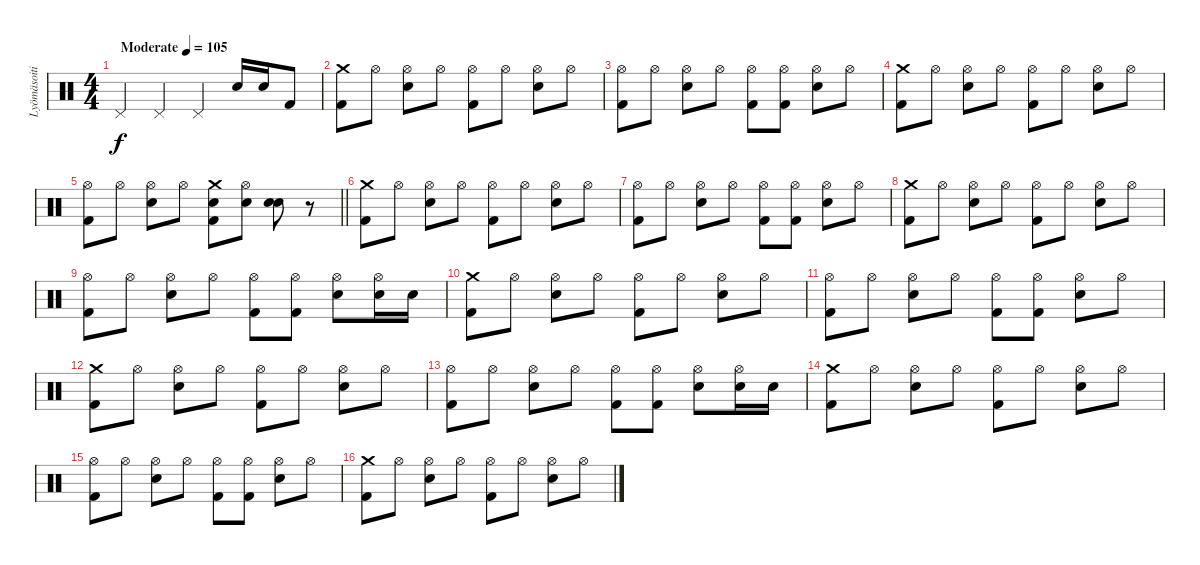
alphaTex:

\track ("Lyömäsoitin" "Lyömäsoiti") {instrument percussion}
\staff {score}
\articulation defaults
\ts (4 4)
\tempo (105 "Moderate")
\clef neutral
\ks c "Pedal Hi-Hat (hit)".4{dy f} "Pedal Hi-Hat (hit)".4 "Pedal Hi-Hat (hit)".4 "Snare (hit) 2".16 "Snare (hit) 2".16 "Kick (hit) 2".8
|
("Crash medium (hit)" "Kick (hit) 2").8 "Hi-Hat (open)".8 ("Hi-Hat (open)" "Snare (hit) 2").8 "Hi-Hat (open)".8 ("Hi-Hat (open)" "Kick (hit) 2").8 "Hi-Hat (open)".8 ("Hi-Hat (open)" "Snare (hit) 2").8 "Hi-Hat (open)".8 |
("Hi-Hat (open)" "Kick (hit) 2").8 "Hi-Hat (open)".8 ("Hi-Hat (open)" "Snare (hit) 2").8 "Hi-Hat (open)".8 ("Hi-Hat (open)" "Kick (hit) 2").8 ("Hi-Hat (open)" "Kick (hit) 2").8 ("Hi-Hat (open)" "Snare (hit) 2").8 "Hi-Hat (open)".8 |
("Crash medium (hit)" "Kick (hit) 2").8 "Hi-Hat (open)".8 ("Hi-Hat (open)" "Snare (hit) 2").8 "Hi-Hat (open)".8 ("Hi-Hat (open)" "Kick (hit) 2").8 "Hi-Hat (open)".8 ("Hi-Hat (open)" "Snare (hit) 2").8 "Hi-Hat (open)".8 |
\barLineRight lightlight
("Hi-Hat (open)" "Kick (hit) 2").8 "Hi-Hat (open)".8 ("Hi-Hat (open)" "Snare (hit) 2").8 "Hi-Hat (open)".8 ("Crash medium (hit)" "Snare (hit) 2" "Kick (hit) 2").8 ("Hi-Hat (open)" "Snare (hit) 2").8 ("Snare (hit) 2" "Snare (hit) 2").8 r.8 |
("Crash medium (hit)" "Kick (hit) 2").8 "Hi-Hat (open)".8 ("Hi-Hat (open)" "Snare (hit) 2").8 "Hi-Hat (open)".8 ("Hi-Hat (open)" "Kick (hit) 2").8 "Hi-Hat (open)".8 ("Hi-Hat (open)" "Snare (hit) 2").8 "Hi-Hat (open)".8 |
("Hi-Hat (open)" "Kick (hit) 2").8 "Hi-Hat (open)".8 ("Hi-Hat (open)" "Snare (hit) 2").8 "Hi-Hat (open)".8 ("Hi-Hat (open)" "Kick (hit) 2").8 ("Hi-Hat (open)" "Kick (hit) 2").8 ("Hi-Hat (open)" "Snare (hit) 2").8 "Hi-Hat (open)".8 |
("Crash medium (hit)" "Kick (hit) 2").8 "Hi-Hat (open)".8 ("Hi-Hat (open)" "Snare (hit) 2").8 "Hi-Hat (open)".8 ("Hi-Hat (open)" "Kick (hit) 2").8 "Hi-Hat (open)".8 ("Hi-Hat (open)" "Snare (hit) 2").8 "Hi-Hat (open)".8 |
("Hi-Hat (open)" "Kick (hit) 2").8 "Hi-Hat (open)".8 ("Hi-Hat (open)" "Snare (hit) 2").8 "Hi-Hat (open)".8 ("Hi-Hat (open)" "Kick (hit) 2").8 ("Hi-Hat (open)" "Kick (hit) 2").8 ("Hi-Hat (open)" "Snare (hit) 2").8 ("Hi-Hat (open)" "Snare (hit) 2").16 "Snare (hit) 2".16 |
("Crash medium (hit)" "Kick (hit) 2").8 "Hi-Hat (open)".8 ("Hi-Hat (open)" "Snare (hit) 2").8 "Hi-Hat (open)".8 ("Hi-Hat (open)" "Kick (hit) 2").8 "Hi-Hat (open)".8 ("Hi-Hat (open)" "Snare (hit) 2").8 "Hi-Hat (open)".8 |
("Hi-Hat (open)" "Kick (hit) 2").8 "Hi-Hat (open)".8 ("Hi-Hat (open)" "Snare (hit) 2").8 "Hi-Hat (open)".8 ("Hi-Hat (open)" "Kick (hit) 2").8 ("Hi-Hat (open)" "Kick (hit) 2").8 ("Hi-Hat (open)" "Snare (hit) 2").8 "Hi-Hat (open)".8 |
("Crash medium (hit)" "Kick (hit) 2").8 "Hi-Hat (open)".8 ("Hi-Hat (open)" "Snare (hit) 2").8 "Hi-Hat (open)".8 ("Hi-Hat (open)" "Kick (hit) 2").8 "Hi-Hat (open)".8 ("Hi-Hat (open)" "Snare (hit) 2").8 "Hi-Hat (open)".8 |
("Hi-Hat (open)" "Kick (hit) 2").8 "Hi-Hat (open)".8 ("Hi-Hat (open)" "Snare (hit) 2").8 "Hi-Hat (open)".8 ("Hi-Hat (open)" "Kick (hit) 2").8 ("Hi-Hat (open)" "Kick (hit) 2").8 ("Hi-Hat (open)" "Snare (hit) 2").8 ("Hi-Hat (open)" "Snare (hit) 2").16 "Snare (hit) 2".16 |
("Crash medium (hit)" "Kick (hit) 2").8 "Hi-Hat (open)".8 ("Hi-Hat (open)" "Snare (hit) 2").8 "Hi-Hat (open)".8 ("Hi-Hat (open)" "Kick (hit) 2").8 "Hi-Hat (open)".8 ("Hi-Hat (open)" "Snare (hit) 2").8 "Hi-Hat (open)".8 |
("Hi-Hat (open)" "Kick (hit) 2").8 "Hi-Hat (open)".8 ("Hi-Hat (open)" "Snare (hit) 2").8 "Hi-Hat (open)".8 ("Hi-Hat (open)" "Kick (hit) 2").8 ("Hi-Hat (open)" "Kick (hit) 2").8 ("Hi-Hat (open)" "Snare (hit) 2").8 "Hi-Hat (open)".8 |
("Crash medium (hit)" "Kick (hit) 2").8 "Hi-Hat (open)".8 ("Hi-Hat (open)" "Snare (hit) 2").8 "Hi-Hat (open)".8 ("Hi-Hat (open)" "Kick (hit) 2").8 "Hi-Hat (open)".8 ("Hi-Hat (open)" "Snare (hit) 2").8 "Hi-Hat (open)".8
